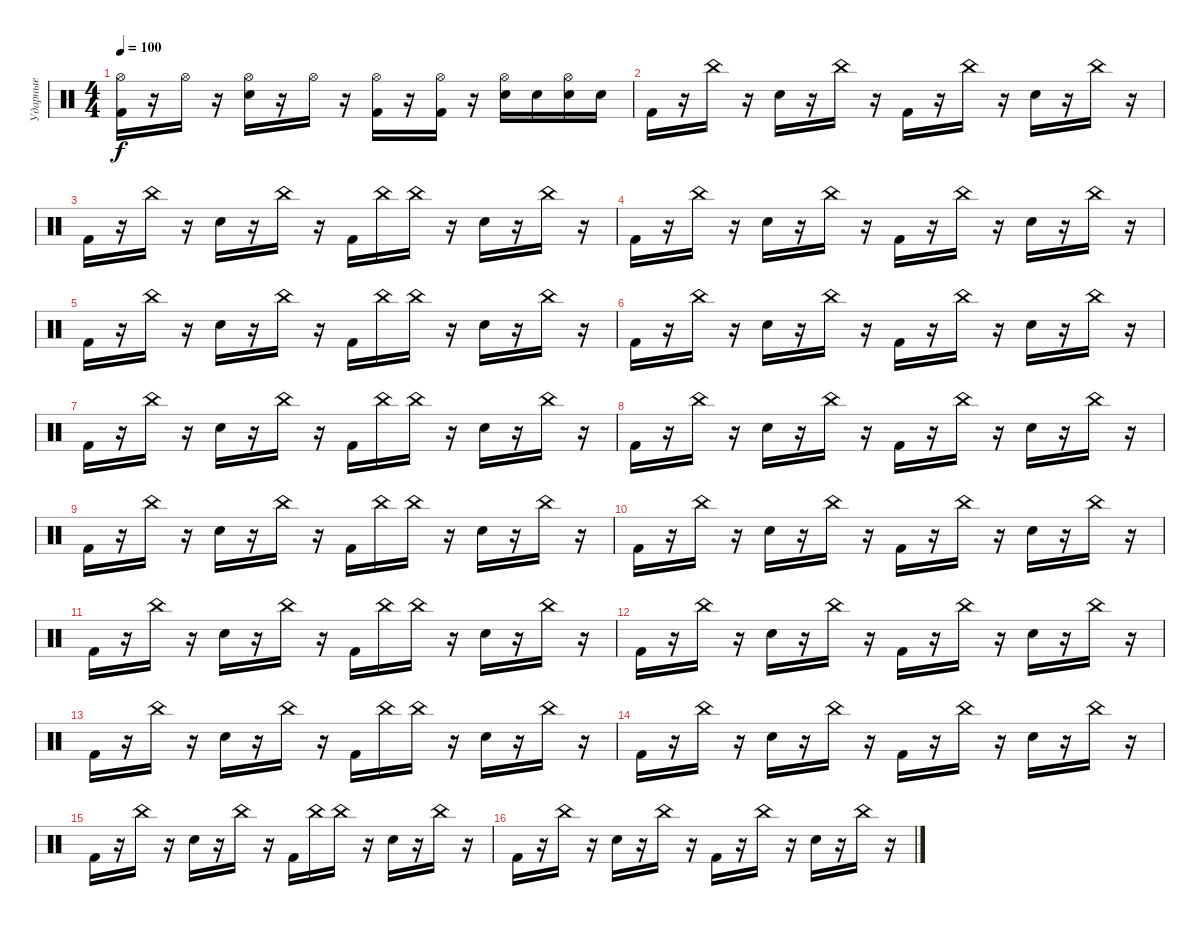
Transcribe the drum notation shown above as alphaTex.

\track ("Ударные" "Ударные") {instrument percussion}
\staff {score}
\articulation defaults
\ts (4 4)
\tempo 100
\clef neutral
\ks c
("Hi-Hat (open)" "Kick (hit) 2").16{dy f} r.16 "Hi-Hat (open)".16 r.16 ("Hi-Hat (open)" "Electric Snare (hit)").16 r.16 "Hi-Hat (open)".16 r.16 ("Hi-Hat (open)" "Kick (hit) 2").16 r.16 ("Hi-Hat (open)" "Kick (hit) 2").16 r.16 ("Hi-Hat (open)" "Electric Snare (hit)").16 "Electric Snare (hit)".16 ("Hi-Hat (open)" "Electric Snare (hit)").16 "Electric Snare (hit)".16 |
"Kick (hit) 2".16 r.16 "China (hit)".16 r.16 "Electric Snare (hit)".16 r.16 "China (hit)".16 r.16 "Kick (hit) 2".16 r.16 "China (hit)".16 r.16 "Electric Snare (hit)".16 r.16 "China (hit)".16 r.16 |
"Kick (hit) 2".16 r.16 "China (hit)".16 r.16 "Electric Snare (hit)".16 r.16 "China (hit)".16 r.16 "Kick (hit) 2".16 "China (hit)".16 "China (hit)".16 r.16 "Electric Snare (hit)".16 r.16 "China (hit)".16 r.16 |
"Kick (hit) 2".16 r.16 "China (hit)".16 r.16 "Electric Snare (hit)".16 r.16 "China (hit)".16 r.16 "Kick (hit) 2".16 r.16 "China (hit)".16 r.16 "Electric Snare (hit)".16 r.16 "China (hit)".16 r.16 |
"Kick (hit) 2".16 r.16 "China (hit)".16 r.16 "Electric Snare (hit)".16 r.16 "China (hit)".16 r.16 "Kick (hit) 2".16 "China (hit)".16 "China (hit)".16 r.16 "Electric Snare (hit)".16 r.16 "China (hit)".16 r.16 |
"Kick (hit) 2".16 r.16 "China (hit)".16 r.16 "Electric Snare (hit)".16 r.16 "China (hit)".16 r.16 "Kick (hit) 2".16 r.16 "China (hit)".16 r.16 "Electric Snare (hit)".16 r.16 "China (hit)".16 r.16 |
"Kick (hit) 2".16 r.16 "China (hit)".16 r.16 "Electric Snare (hit)".16 r.16 "China (hit)".16 r.16 "Kick (hit) 2".16 "China (hit)".16 "China (hit)".16 r.16 "Electric Snare (hit)".16 r.16 "China (hit)".16 r.16 |
"Kick (hit) 2".16 r.16 "China (hit)".16 r.16 "Electric Snare (hit)".16 r.16 "China (hit)".16 r.16 "Kick (hit) 2".16 r.16 "China (hit)".16 r.16 "Electric Snare (hit)".16 r.16 "China (hit)".16 r.16 |
"Kick (hit) 2".16 r.16 "China (hit)".16 r.16 "Electric Snare (hit)".16 r.16 "China (hit)".16 r.16 "Kick (hit) 2".16 "China (hit)".16 "China (hit)".16 r.16 "Electric Snare (hit)".16 r.16 "China (hit)".16 r.16 |
"Kick (hit) 2".16 r.16 "China (hit)".16 r.16 "Electric Snare (hit)".16 r.16 "China (hit)".16 r.16 "Kick (hit) 2".16 r.16 "China (hit)".16 r.16 "Electric Snare (hit)".16 r.16 "China (hit)".16 r.16 |
"Kick (hit) 2".16 r.16 "China (hit)".16 r.16 "Electric Snare (hit)".16 r.16 "China (hit)".16 r.16 "Kick (hit) 2".16 "China (hit)".16 "China (hit)".16 r.16 "Electric Snare (hit)".16 r.16 "China (hit)".16 r.16 |
"Kick (hit) 2".16 r.16 "China (hit)".16 r.16 "Electric Snare (hit)".16 r.16 "China (hit)".16 r.16 "Kick (hit) 2".16 r.16 "China (hit)".16 r.16 "Electric Snare (hit)".16 r.16 "China (hit)".16 r.16 |
"Kick (hit) 2".16 r.16 "China (hit)".16 r.16 "Electric Snare (hit)".16 r.16 "China (hit)".16 r.16 "Kick (hit) 2".16 "China (hit)".16 "China (hit)".16 r.16 "Electric Snare (hit)".16 r.16 "China (hit)".16 r.16 |
"Kick (hit) 2".16 r.16 "China (hit)".16 r.16 "Electric Snare (hit)".16 r.16 "China (hit)".16 r.16 "Kick (hit) 2".16 r.16 "China (hit)".16 r.16 "Electric Snare (hit)".16 r.16 "China (hit)".16 r.16 |
"Kick (hit) 2".16 r.16 "China (hit)".16 r.16 "Electric Snare (hit)".16 r.16 "China (hit)".16 r.16 "Kick (hit) 2".16 "China (hit)".16 "China (hit)".16 r.16 "Electric Snare (hit)".16 r.16 "China (hit)".16 r.16 |
"Kick (hit) 2".16 r.16 "China (hit)".16 r.16 "Electric Snare (hit)".16 r.16 "China (hit)".16 r.16 "Kick (hit) 2".16 r.16 "China (hit)".16 r.16 "Electric Snare (hit)".16 r.16 "China (hit)".16 r.16
